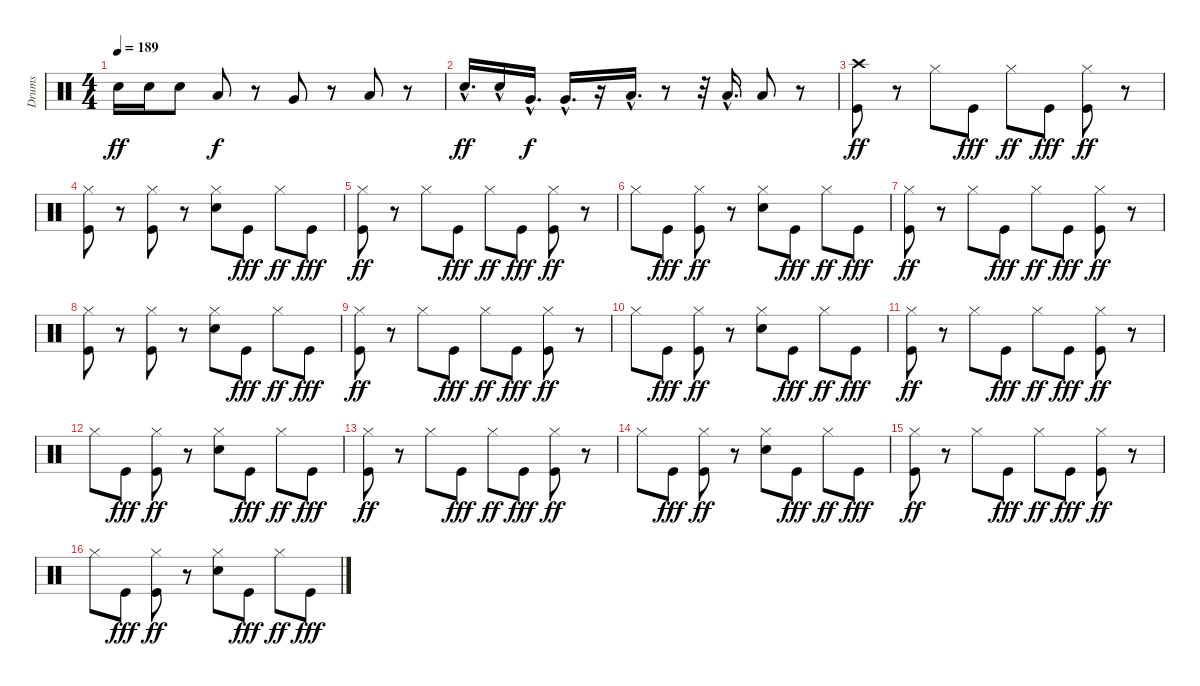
\track ("Drums" "Drums") {instrument percussion}
\staff {score}
\articulation defaults
\ts (4 4)
\tempo 189
\clef neutral
\ks c "Snare (hit) 2".16{dy ff} "Snare (hit) 2".16 "Snare (hit) 2".8 "Low Tom (hit)".8{dy f}
r.8 "Very Low Tom (hit)".8 r.8 "Low Floor Tom (hit)".8 r.8 |
"Snare (hit) 2"{hac}.16{d dy ff} "Snare (hit) 2"{hac}.16 "Very Low Tom (hit)"{hac}.16{d dy f} "Very Low Tom (hit)"{hac}.16{d} r.16 "Low Floor Tom (hit)"{hac}.16{d} r.8 r.32 "Low Floor Tom (hit)"{hac}.16{d} "Low Floor Tom (hit)".8 r.8 |
("Kick (hit)" "Crash high (hit)").8{dy ff} r.8 "Hi-Hat (closed)".8 "Kick (hit)".8{dy fff} "Hi-Hat (closed)".8{dy ff} "Kick (hit)".8{dy fff} ("Kick (hit)" "Hi-Hat (closed)").8{dy ff} r.8 |
("Kick (hit)" "Hi-Hat (closed)").8 r.8 ("Kick (hit)" "Hi-Hat (closed)").8 r.8 ("Snare (hit) 2" "Hi-Hat (closed)").8 "Kick (hit)".8{dy fff} "Hi-Hat (closed)".8{dy ff} "Kick (hit)".8{dy fff} |
("Kick (hit)" "Hi-Hat (closed)").8{dy ff} r.8 "Hi-Hat (closed)".8 "Kick (hit)".8{dy fff} "Hi-Hat (closed)".8{dy ff} "Kick (hit)".8{dy fff} ("Kick (hit)" "Hi-Hat (closed)").8{dy ff} r.8 |
"Hi-Hat (closed)".8 "Kick (hit)".8{dy fff} ("Kick (hit)" "Hi-Hat (closed)").8{dy ff} r.8 ("Snare (hit) 2" "Hi-Hat (closed)").8 "Kick (hit)".8{dy fff} "Hi-Hat (closed)".8{dy ff} "Kick (hit)".8{dy fff} |
("Kick (hit)" "Hi-Hat (closed)").8{dy ff} r.8 "Hi-Hat (closed)".8 "Kick (hit)".8{dy fff} "Hi-Hat (closed)".8{dy ff} "Kick (hit)".8{dy fff} ("Kick (hit)" "Hi-Hat (closed)").8{dy ff} r.8 |
("Kick (hit)" "Hi-Hat (closed)").8 r.8 ("Kick (hit)" "Hi-Hat (closed)").8 r.8 ("Snare (hit) 2" "Hi-Hat (closed)").8 "Kick (hit)".8{dy fff} "Hi-Hat (closed)".8{dy ff} "Kick (hit)".8{dy fff} |
("Kick (hit)" "Hi-Hat (closed)").8{dy ff} r.8 "Hi-Hat (closed)".8 "Kick (hit)".8{dy fff} "Hi-Hat (closed)".8{dy ff} "Kick (hit)".8{dy fff} ("Kick (hit)" "Hi-Hat (closed)").8{dy ff} r.8 |
"Hi-Hat (closed)".8 "Kick (hit)".8{dy fff} ("Kick (hit)" "Hi-Hat (closed)").8{dy ff} r.8 ("Snare (hit) 2" "Hi-Hat (closed)").8 "Kick (hit)".8{dy fff} "Hi-Hat (closed)".8{dy ff} "Kick (hit)".8{dy fff} |
("Kick (hit)" "Hi-Hat (closed)").8{dy ff} r.8 "Hi-Hat (closed)".8 "Kick (hit)".8{dy fff} "Hi-Hat (closed)".8{dy ff} "Kick (hit)".8{dy fff} ("Kick (hit)" "Hi-Hat (closed)").8{dy ff} r.8 |
"Hi-Hat (closed)".8 "Kick (hit)".8{dy fff} ("Kick (hit)" "Hi-Hat (closed)").8{dy ff} r.8 ("Snare (hit) 2" "Hi-Hat (closed)").8 "Kick (hit)".8{dy fff} "Hi-Hat (closed)".8{dy ff} "Kick (hit)".8{dy fff} |
("Kick (hit)" "Hi-Hat (closed)").8{dy ff} r.8 "Hi-Hat (closed)".8 "Kick (hit)".8{dy fff} "Hi-Hat (closed)".8{dy ff} "Kick (hit)".8{dy fff} ("Kick (hit)" "Hi-Hat (closed)").8{dy ff} r.8 |
"Hi-Hat (closed)".8 "Kick (hit)".8{dy fff} ("Kick (hit)" "Hi-Hat (closed)").8{dy ff} r.8 ("Snare (hit) 2" "Hi-Hat (closed)").8 "Kick (hit)".8{dy fff} "Hi-Hat (closed)".8{dy ff} "Kick (hit)".8{dy fff} |
("Kick (hit)" "Hi-Hat (closed)").8{dy ff} r.8 "Hi-Hat (closed)".8 "Kick (hit)".8{dy fff} "Hi-Hat (closed)".8{dy ff} "Kick (hit)".8{dy fff} ("Kick (hit)" "Hi-Hat (closed)").8{dy ff} r.8 |
"Hi-Hat (closed)".8 "Kick (hit)".8{dy fff} ("Kick (hit)" "Hi-Hat (closed)").8{dy ff} r.8 ("Snare (hit) 2" "Hi-Hat (closed)").8 "Kick (hit)".8{dy fff} "Hi-Hat (closed)".8{dy ff} "Kick (hit)".8{dy fff}
